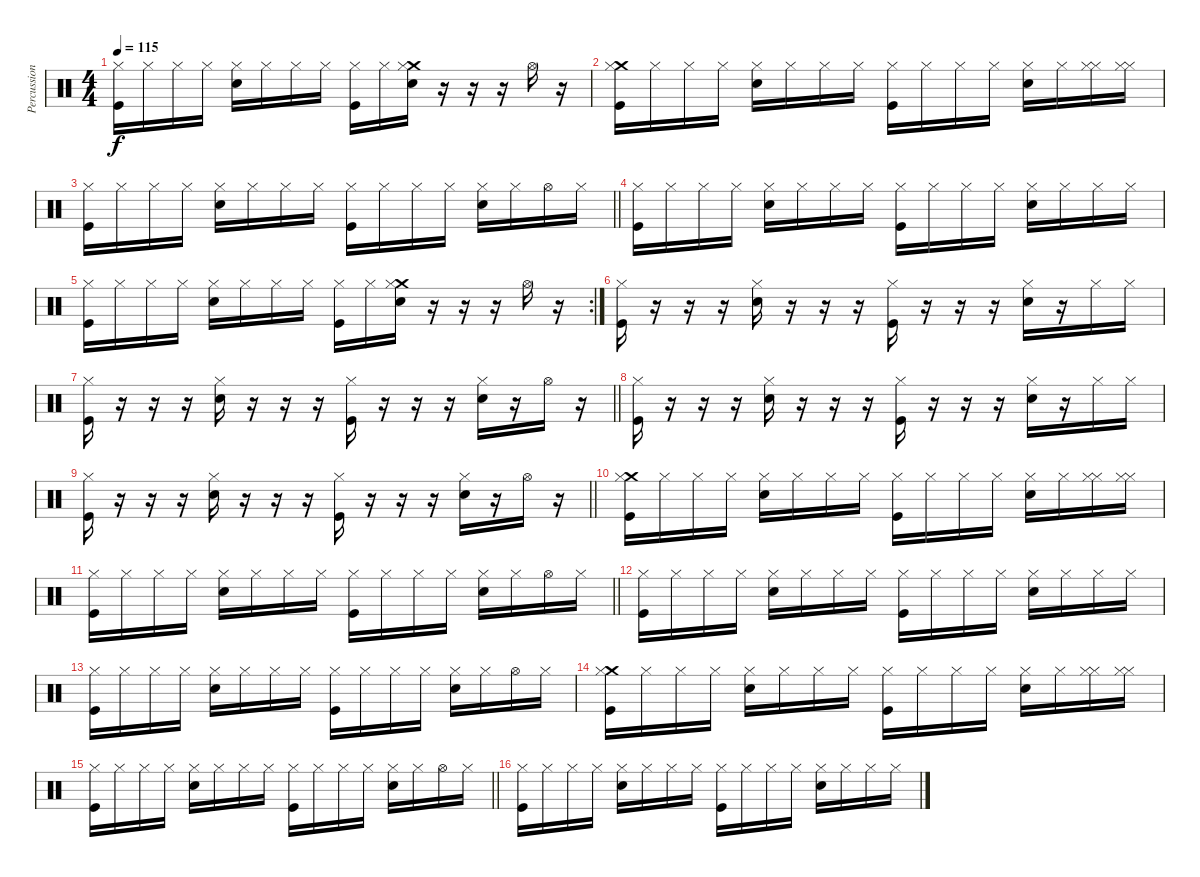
\track ("Percussions" "Percussion") {instrument percussion}
\staff {score}
\articulation defaults
\ts (4 4)
\tempo 115
\clef neutral
\ks c
("Kick (hit)" "Hi-Hat (closed)").16{dy f} "Hi-Hat (closed)".16 "Hi-Hat (closed)".16 "Hi-Hat (closed)".16 ("Snare (hit) 2" "Hi-Hat (closed)").16 "Hi-Hat (closed)".16 "Hi-Hat (closed)".16 "Hi-Hat (closed)".16 ("Kick (hit)" "Hi-Hat (closed)").16 "Hi-Hat (closed)".16 ("Crash medium (hit)" "Snare (hit) 2" "Hi-Hat (closed)").16 r.16 r.16 r.16 "Hi-Hat (open)".16 r.16 |
("Crash medium (hit)" "Kick (hit)" "Hi-Hat (closed)").16 "Hi-Hat (closed)".16 "Hi-Hat (closed)".16 "Hi-Hat (closed)".16 ("Snare (hit) 2" "Hi-Hat (closed)").16 "Hi-Hat (closed)".16 "Hi-Hat (closed)".16 "Hi-Hat (closed)".16 ("Kick (hit)" "Hi-Hat (closed)").16 "Hi-Hat (closed)".16 "Hi-Hat (closed)".16 "Hi-Hat (closed)".16 ("Snare (hit) 2" "Hi-Hat (closed)").16 "Hi-Hat (closed)".16 ("Hi-Hat (closed)" "Hi-Hat (closed)").16 ("Hi-Hat (closed)" "Hi-Hat (closed)").16 |
\barLineRight lightlight
("Kick (hit)" "Hi-Hat (closed)").16 "Hi-Hat (closed)".16 "Hi-Hat (closed)".16 "Hi-Hat (closed)".16 ("Snare (hit) 2" "Hi-Hat (closed)").16 "Hi-Hat (closed)".16 "Hi-Hat (closed)".16 "Hi-Hat (closed)".16 ("Kick (hit)" "Hi-Hat (closed)").16 "Hi-Hat (closed)".16 "Hi-Hat (closed)".16 "Hi-Hat (closed)".16 ("Snare (hit) 2" "Hi-Hat (closed)").16 "Hi-Hat (closed)".16 "Hi-Hat (open)".16 "Hi-Hat (closed)".16 |
("Kick (hit)" "Hi-Hat (closed)").16 "Hi-Hat (closed)".16 "Hi-Hat (closed)".16 "Hi-Hat (closed)".16 ("Snare (hit) 2" "Hi-Hat (closed)").16 "Hi-Hat (closed)".16 "Hi-Hat (closed)".16 "Hi-Hat (closed)".16 ("Kick (hit)" "Hi-Hat (closed)").16 "Hi-Hat (closed)".16 "Hi-Hat (closed)".16 "Hi-Hat (closed)".16 ("Snare (hit) 2" "Hi-Hat (closed)").16 "Hi-Hat (closed)".16 "Hi-Hat (closed)".16 "Hi-Hat (closed)".16 |
\rc 2
("Kick (hit)" "Hi-Hat (closed)").16 "Hi-Hat (closed)".16 "Hi-Hat (closed)".16 "Hi-Hat (closed)".16 ("Snare (hit) 2" "Hi-Hat (closed)").16 "Hi-Hat (closed)".16 "Hi-Hat (closed)".16 "Hi-Hat (closed)".16 ("Kick (hit)" "Hi-Hat (closed)").16 "Hi-Hat (closed)".16 ("Crash medium (hit)" "Snare (hit) 2" "Hi-Hat (closed)").16 r.16 r.16 r.16 "Hi-Hat (open)".16 r.16 |
("Kick (hit)" "Hi-Hat (closed)").16 r.16 r.16 r.16 ("Snare (hit) 2" "Hi-Hat (closed)").16 r.16 r.16 r.16 ("Kick (hit)" "Hi-Hat (closed)").16 r.16 r.16 r.16 ("Snare (hit) 2" "Hi-Hat (closed)").16 r.16 "Hi-Hat (closed)".16 "Hi-Hat (closed)".16 |
\barLineRight lightlight
("Kick (hit)" "Hi-Hat (closed)").16 r.16 r.16 r.16 ("Snare (hit) 2" "Hi-Hat (closed)").16 r.16 r.16 r.16 ("Kick (hit)" "Hi-Hat (closed)").16 r.16 r.16 r.16 ("Snare (hit) 2" "Hi-Hat (closed)").16 r.16 "Hi-Hat (open)".16 r.16 |
("Kick (hit)" "Hi-Hat (closed)").16 r.16 r.16 r.16 ("Snare (hit) 2" "Hi-Hat (closed)").16 r.16 r.16 r.16 ("Kick (hit)" "Hi-Hat (closed)").16 r.16 r.16 r.16 ("Snare (hit) 2" "Hi-Hat (closed)").16 r.16 "Hi-Hat (closed)".16 "Hi-Hat (closed)".16 |
\barLineRight lightlight
("Kick (hit)" "Hi-Hat (closed)").16 r.16 r.16 r.16 ("Snare (hit) 2" "Hi-Hat (closed)").16 r.16 r.16 r.16 ("Kick (hit)" "Hi-Hat (closed)").16 r.16 r.16 r.16 ("Snare (hit) 2" "Hi-Hat (closed)").16 r.16 "Hi-Hat (open)".16 r.16 |
("Crash medium (hit)" "Kick (hit)" "Hi-Hat (closed)").16 "Hi-Hat (closed)".16 "Hi-Hat (closed)".16 "Hi-Hat (closed)".16 ("Snare (hit) 2" "Hi-Hat (closed)").16 "Hi-Hat (closed)".16 "Hi-Hat (closed)".16 "Hi-Hat (closed)".16 ("Kick (hit)" "Hi-Hat (closed)").16 "Hi-Hat (closed)".16 "Hi-Hat (closed)".16 "Hi-Hat (closed)".16 ("Snare (hit) 2" "Hi-Hat (closed)").16 "Hi-Hat (closed)".16 ("Hi-Hat (closed)" "Hi-Hat (closed)").16 ("Hi-Hat (closed)" "Hi-Hat (closed)").16 |
\barLineRight lightlight
("Kick (hit)" "Hi-Hat (closed)").16 "Hi-Hat (closed)".16 "Hi-Hat (closed)".16 "Hi-Hat (closed)".16 ("Snare (hit) 2" "Hi-Hat (closed)").16 "Hi-Hat (closed)".16 "Hi-Hat (closed)".16 "Hi-Hat (closed)".16 ("Kick (hit)" "Hi-Hat (closed)").16 "Hi-Hat (closed)".16 "Hi-Hat (closed)".16 "Hi-Hat (closed)".16 ("Snare (hit) 2" "Hi-Hat (closed)").16 "Hi-Hat (closed)".16 "Hi-Hat (open)".16 "Hi-Hat (closed)".16 |
("Kick (hit)" "Hi-Hat (closed)").16 "Hi-Hat (closed)".16 "Hi-Hat (closed)".16 "Hi-Hat (closed)".16 ("Snare (hit) 2" "Hi-Hat (closed)").16 "Hi-Hat (closed)".16 "Hi-Hat (closed)".16 "Hi-Hat (closed)".16 ("Kick (hit)" "Hi-Hat (closed)").16 "Hi-Hat (closed)".16 "Hi-Hat (closed)".16 "Hi-Hat (closed)".16 ("Snare (hit) 2" "Hi-Hat (closed)").16 "Hi-Hat (closed)".16 "Hi-Hat (closed)".16 "Hi-Hat (closed)".16 |
("Kick (hit)" "Hi-Hat (closed)").16 "Hi-Hat (closed)".16 "Hi-Hat (closed)".16 "Hi-Hat (closed)".16 ("Snare (hit) 2" "Hi-Hat (closed)").16 "Hi-Hat (closed)".16 "Hi-Hat (closed)".16 "Hi-Hat (closed)".16 ("Kick (hit)" "Hi-Hat (closed)").16 "Hi-Hat (closed)".16 "Hi-Hat (closed)".16 "Hi-Hat (closed)".16 ("Snare (hit) 2" "Hi-Hat (closed)").16 "Hi-Hat (closed)".16 "Hi-Hat (open)".16 "Hi-Hat (closed)".16 |
("Crash medium (hit)" "Kick (hit)" "Hi-Hat (closed)").16 "Hi-Hat (closed)".16 "Hi-Hat (closed)".16 "Hi-Hat (closed)".16 ("Snare (hit) 2" "Hi-Hat (closed)").16 "Hi-Hat (closed)".16 "Hi-Hat (closed)".16 "Hi-Hat (closed)".16 ("Kick (hit)" "Hi-Hat (closed)").16 "Hi-Hat (closed)".16 "Hi-Hat (closed)".16 "Hi-Hat (closed)".16 ("Snare (hit) 2" "Hi-Hat (closed)").16 "Hi-Hat (closed)".16 ("Hi-Hat (closed)" "Hi-Hat (closed)").16 ("Hi-Hat (closed)" "Hi-Hat (closed)").16 |
\barLineRight lightlight
("Kick (hit)" "Hi-Hat (closed)").16 "Hi-Hat (closed)".16 "Hi-Hat (closed)".16 "Hi-Hat (closed)".16 ("Snare (hit) 2" "Hi-Hat (closed)").16 "Hi-Hat (closed)".16 "Hi-Hat (closed)".16 "Hi-Hat (closed)".16 ("Kick (hit)" "Hi-Hat (closed)").16 "Hi-Hat (closed)".16 "Hi-Hat (closed)".16 "Hi-Hat (closed)".16 ("Snare (hit) 2" "Hi-Hat (closed)").16 "Hi-Hat (closed)".16 "Hi-Hat (open)".16 "Hi-Hat (closed)".16 |
("Kick (hit)" "Hi-Hat (closed)").16 "Hi-Hat (closed)".16 "Hi-Hat (closed)".16 "Hi-Hat (closed)".16 ("Snare (hit) 2" "Hi-Hat (closed)").16 "Hi-Hat (closed)".16 "Hi-Hat (closed)".16 "Hi-Hat (closed)".16 ("Kick (hit)" "Hi-Hat (closed)").16 "Hi-Hat (closed)".16 "Hi-Hat (closed)".16 "Hi-Hat (closed)".16 ("Snare (hit) 2" "Hi-Hat (closed)").16 "Hi-Hat (closed)".16 "Hi-Hat (closed)".16 "Hi-Hat (closed)".16
